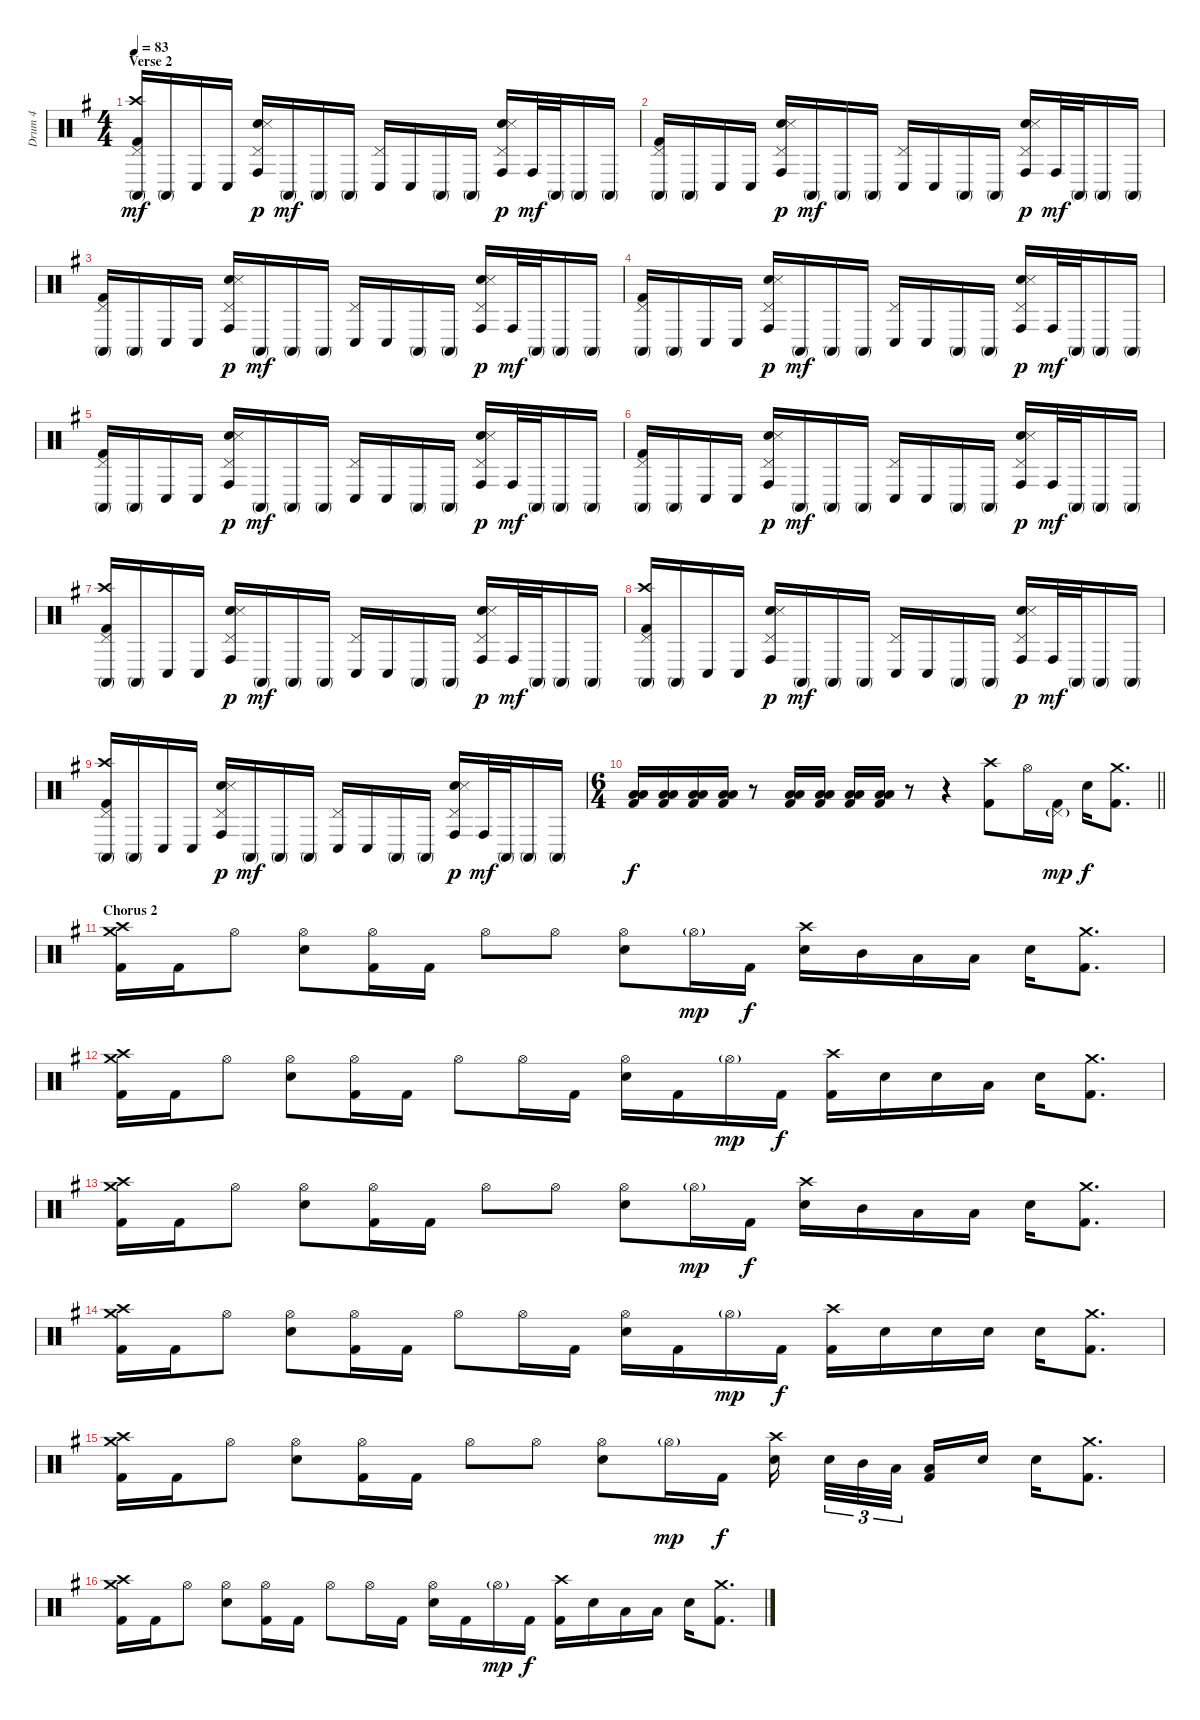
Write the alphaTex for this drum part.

\track ("Drum 4" "Drum 4") {instrument percussion}
\staff {score}
\articulation defaults
\ts (4 4)
\section ("" "Verse 2")
\tempo 83
\clef neutral
\ks eminor
("Crash high (hit)" "Pedal Hi-Hat (hit)" "Conga high (mute)" "Kick (hit) 2").16{dy mf} "Conga high (mute)".16 "Conga low (hit)".16 "Conga low (hit)".16 ("Pedal Hi-Hat (hit)" "Conga high (hit)" "Snare (hit) 2" "Snare (side stick) 3").16{dy p} "Conga high (mute)".16{dy mf} "Conga high (mute)".16 "Conga high (mute)".16 ("Pedal Hi-Hat (hit)" "Conga low (hit)").16 "Conga low (hit)".16 "Conga high (mute)".16 "Conga high (mute)".16 ("Pedal Hi-Hat (hit)" "Conga high (hit)" "Snare (hit) 2" "Snare (side stick) 3").16{dy p} "Conga high (hit)".32{dy mf} "Conga high (mute)".32 "Conga high (mute)".16 "Conga high (mute)".16 |
("Pedal Hi-Hat (hit)" "Conga high (mute)" "Kick (hit) 2").16 "Conga high (mute)".16 "Conga low (hit)".16 "Conga low (hit)".16 ("Pedal Hi-Hat (hit)" "Conga high (hit)" "Snare (hit) 2" "Snare (side stick) 3").16{dy p} "Conga high (mute)".16{dy mf} "Conga high (mute)".16 "Conga high (mute)".16 ("Pedal Hi-Hat (hit)" "Conga low (hit)").16 "Conga low (hit)".16 "Conga high (mute)".16 "Conga high (mute)".16 ("Pedal Hi-Hat (hit)" "Conga high (hit)" "Snare (hit) 2" "Snare (side stick) 3").16{dy p} "Conga high (hit)".32{dy mf} "Conga high (mute)".32 "Conga high (mute)".16 "Conga high (mute)".16 |
("Pedal Hi-Hat (hit)" "Conga high (mute)" "Kick (hit) 2").16 "Conga high (mute)".16 "Conga low (hit)".16 "Conga low (hit)".16 ("Pedal Hi-Hat (hit)" "Conga high (hit)" "Snare (hit) 2" "Snare (side stick) 3").16{dy p} "Conga high (mute)".16{dy mf} "Conga high (mute)".16 "Conga high (mute)".16 ("Pedal Hi-Hat (hit)" "Conga low (hit)").16 "Conga low (hit)".16 "Conga high (mute)".16 "Conga high (mute)".16 ("Pedal Hi-Hat (hit)" "Conga high (hit)" "Snare (hit) 2" "Snare (side stick) 3").16{dy p} "Conga high (hit)".32{dy mf} "Conga high (mute)".32 "Conga high (mute)".16 "Conga high (mute)".16 |
("Pedal Hi-Hat (hit)" "Conga high (mute)" "Kick (hit) 2").16 "Conga high (mute)".16 "Conga low (hit)".16 "Conga low (hit)".16 ("Pedal Hi-Hat (hit)" "Conga high (hit)" "Snare (hit) 2" "Snare (side stick) 3").16{dy p} "Conga high (mute)".16{dy mf} "Conga high (mute)".16 "Conga high (mute)".16 ("Pedal Hi-Hat (hit)" "Conga low (hit)").16 "Conga low (hit)".16 "Conga high (mute)".16 "Conga high (mute)".16 ("Pedal Hi-Hat (hit)" "Conga high (hit)" "Snare (hit) 2" "Snare (side stick) 3").16{dy p} "Conga high (hit)".32{dy mf} "Conga high (mute)".32 "Conga high (mute)".16 "Conga high (mute)".16 |
("Pedal Hi-Hat (hit)" "Conga high (mute)" "Kick (hit) 2").16 "Conga high (mute)".16 "Conga low (hit)".16 "Conga low (hit)".16 ("Pedal Hi-Hat (hit)" "Conga high (hit)" "Snare (hit) 2" "Snare (side stick) 3").16{dy p} "Conga high (mute)".16{dy mf} "Conga high (mute)".16 "Conga high (mute)".16 ("Pedal Hi-Hat (hit)" "Conga low (hit)").16 "Conga low (hit)".16 "Conga high (mute)".16 "Conga high (mute)".16 ("Pedal Hi-Hat (hit)" "Conga high (hit)" "Snare (hit) 2" "Snare (side stick) 3").16{dy p} "Conga high (hit)".32{dy mf} "Conga high (mute)".32 "Conga high (mute)".16 "Conga high (mute)".16 |
("Pedal Hi-Hat (hit)" "Conga high (mute)" "Kick (hit) 2").16 "Conga high (mute)".16 "Conga low (hit)".16 "Conga low (hit)".16 ("Pedal Hi-Hat (hit)" "Conga high (hit)" "Snare (hit) 2" "Snare (side stick) 3").16{dy p} "Conga high (mute)".16{dy mf} "Conga high (mute)".16 "Conga high (mute)".16 ("Pedal Hi-Hat (hit)" "Conga low (hit)").16 "Conga low (hit)".16 "Conga high (mute)".16 "Conga high (mute)".16 ("Pedal Hi-Hat (hit)" "Conga high (hit)" "Snare (hit) 2" "Snare (side stick) 3").16{dy p} "Conga high (hit)".32{dy mf} "Conga high (mute)".32 "Conga high (mute)".16 "Conga high (mute)".16 |
("Crash high (hit)" "Pedal Hi-Hat (hit)" "Conga high (mute)" "Kick (hit) 2").16 "Conga high (mute)".16 "Conga low (hit)".16 "Conga low (hit)".16 ("Pedal Hi-Hat (hit)" "Conga high (hit)" "Snare (hit) 2" "Snare (side stick) 3").16{dy p} "Conga high (mute)".16{dy mf} "Conga high (mute)".16 "Conga high (mute)".16 ("Pedal Hi-Hat (hit)" "Conga low (hit)").16 "Conga low (hit)".16 "Conga high (mute)".16 "Conga high (mute)".16 ("Pedal Hi-Hat (hit)" "Conga high (hit)" "Snare (hit) 2" "Snare (side stick) 3").16{dy p} "Conga high (hit)".32{dy mf} "Conga high (mute)".32 "Conga high (mute)".16 "Conga high (mute)".16 |
("Crash high (hit)" "Pedal Hi-Hat (hit)" "Conga high (mute)" "Kick (hit) 2").16 "Conga high (mute)".16 "Conga low (hit)".16 "Conga low (hit)".16 ("Pedal Hi-Hat (hit)" "Conga high (hit)" "Snare (hit) 2" "Snare (side stick) 3").16{dy p} "Conga high (mute)".16{dy mf} "Conga high (mute)".16 "Conga high (mute)".16 ("Pedal Hi-Hat (hit)" "Conga low (hit)").16 "Conga low (hit)".16 "Conga high (mute)".16 "Conga high (mute)".16 ("Pedal Hi-Hat (hit)" "Conga high (hit)" "Snare (hit) 2" "Snare (side stick) 3").16{dy p} "Conga high (hit)".32{dy mf} "Conga high (mute)".32 "Conga high (mute)".16 "Conga high (mute)".16 |
("Crash high (hit)" "Pedal Hi-Hat (hit)" "Conga high (mute)" "Kick (hit) 2").16 "Conga high (mute)".16 "Conga low (hit)".16 "Conga low (hit)".16 ("Pedal Hi-Hat (hit)" "Conga high (hit)" "Snare (hit) 2" "Snare (side stick) 3").16{dy p} "Conga high (mute)".16{dy mf} "Conga high (mute)".16 "Conga high (mute)".16 ("Pedal Hi-Hat (hit)" "Conga low (hit)").16 "Conga low (hit)".16 "Conga high (mute)".16 "Conga high (mute)".16 ("Pedal Hi-Hat (hit)" "Conga high (hit)" "Snare (hit) 2" "Snare (side stick) 3").16{dy p} "Conga high (hit)".32{dy mf} "Conga high (mute)".32 "Conga high (mute)".16 "Conga high (mute)".16 |
\ts (6 4)
\barLineRight lightlight
("Low Tom (hit)" "Low Floor Tom (hit)" "Kick (hit) 2").16{dy f} ("Low Tom (hit)" "Low Floor Tom (hit)" "Kick (hit) 2").16 ("Low Tom (hit)" "Low Floor Tom (hit)" "Kick (hit) 2").16 ("Low Tom (hit)" "Low Floor Tom (hit)" "Kick (hit) 2").16 r.8 ("Low Tom (hit)" "Low Floor Tom (hit)" "Kick (hit) 2").16 ("Low Tom (hit)" "Low Floor Tom (hit)" "Kick (hit) 2").16 ("Low Tom (hit)" "Low Floor Tom (hit)" "Kick (hit) 2").16 ("Low Tom (hit)" "Low Floor Tom (hit)" "Kick (hit) 2").16 r.8 r.4 ("Crash high (hit)" "Kick (hit) 2").8 "Hi-Hat (open)".16 ("Pedal Hi-Hat (hit)"{g} "Kick (hit) 2").16{dy mp} "Snare (hit) 2".16{dy f} ("Crash medium (hit)" "Kick (hit) 2").8{d} |
\section ("" "Chorus 2")
("Crash high (hit)" "Crash medium (hit)" "Kick (hit) 2").16 "Kick (hit) 2".16 "Hi-Hat (open)".8 ("Hi-Hat (open)" "Snare (hit) 2").8 ("Hi-Hat (open)" "Kick (hit) 2").16 "Kick (hit) 2".16 "Hi-Hat (open)".8 "Hi-Hat (open)".8 ("Hi-Hat (open)" "Snare (hit) 2").8 "Hi-Hat (open)"{g}.16{dy mp} "Kick (hit) 2".16{dy f} ("Crash high (hit)" "Snare (hit) 2").16 "Mid Tom (hit)".16 "Low Tom (hit)".16 "Low Floor Tom (hit)".16 "Snare (hit) 2".16 ("Crash medium (hit)" "Kick (hit) 2").8{d} |
("Crash high (hit)" "Crash medium (hit)" "Kick (hit) 2").16 "Kick (hit) 2".16 "Hi-Hat (open)".8 ("Hi-Hat (open)" "Snare (hit) 2").8 ("Hi-Hat (open)" "Kick (hit) 2").16 "Kick (hit) 2".16 "Hi-Hat (open)".8 "Hi-Hat (open)".16 "Kick (hit) 2".16 ("Hi-Hat (open)" "Snare (hit) 2").16 "Kick (hit) 2".16 "Hi-Hat (open)"{g}.16{dy mp} "Kick (hit) 2".16{dy f} ("Crash high (hit)" "Kick (hit) 2").16 "Snare (hit) 2".16 "Snare (hit) 2".16 "Low Tom (hit)".16 "Snare (hit) 2".16 ("Crash medium (hit)" "Kick (hit) 2").8{d} |
("Crash high (hit)" "Crash medium (hit)" "Kick (hit) 2").16 "Kick (hit) 2".16 "Hi-Hat (open)".8 ("Hi-Hat (open)" "Snare (hit) 2").8 ("Hi-Hat (open)" "Kick (hit) 2").16 "Kick (hit) 2".16 "Hi-Hat (open)".8 "Hi-Hat (open)".8 ("Hi-Hat (open)" "Snare (hit) 2").8 "Hi-Hat (open)"{g}.16{dy mp} "Kick (hit) 2".16{dy f} ("Crash high (hit)" "Snare (hit) 2").16 "Mid Tom (hit)".16 "Low Tom (hit)".16 "Low Floor Tom (hit)".16 "Snare (hit) 2".16 ("Crash medium (hit)" "Kick (hit) 2").8{d} |
("Crash high (hit)" "Crash medium (hit)" "Kick (hit) 2").16 "Kick (hit) 2".16 "Hi-Hat (open)".8 ("Hi-Hat (open)" "Snare (hit) 2").8 ("Hi-Hat (open)" "Kick (hit) 2").16 "Kick (hit) 2".16 "Hi-Hat (open)".8 "Hi-Hat (open)".16 "Kick (hit) 2".16 ("Hi-Hat (open)" "Snare (hit) 2").16 "Kick (hit) 2".16 "Hi-Hat (open)"{g}.16{dy mp} "Kick (hit) 2".16{dy f} ("Crash high (hit)" "Kick (hit) 2").16 "Snare (hit) 2".16 "Snare (hit) 2".16 "Snare (hit) 2".16 "Snare (hit) 2".16 ("Crash medium (hit)" "Kick (hit) 2").8{d} |
("Crash high (hit)" "Crash medium (hit)" "Kick (hit) 2").16 "Kick (hit) 2".16 "Hi-Hat (open)".8 ("Hi-Hat (open)" "Snare (hit) 2").8 ("Hi-Hat (open)" "Kick (hit) 2").16 "Kick (hit) 2".16 "Hi-Hat (open)".8 "Hi-Hat (open)".8 ("Hi-Hat (open)" "Snare (hit) 2").8 "Hi-Hat (open)"{g}.16{dy mp} "Kick (hit) 2".16{dy f} ("Crash high (hit)" "Snare (hit) 2").16{beam splitsecondary} "Snare (hit) 2".32{tu (3 2)} "Mid Tom (hit)".32{tu (3 2)} "Low Tom (hit)".32{tu (3 2) beam splitsecondary} ("Low Floor Tom (hit)" "Kick (hit) 2").16 "Snare (hit) 2".16 "Snare (hit) 2".16 ("Crash medium (hit)" "Kick (hit) 2").8{d} |
("Crash high (hit)" "Crash medium (hit)" "Kick (hit) 2").16 "Kick (hit) 2".16 "Hi-Hat (open)".8 ("Hi-Hat (open)" "Snare (hit) 2").8 ("Hi-Hat (open)" "Kick (hit) 2").16 "Kick (hit) 2".16 "Hi-Hat (open)".8 "Hi-Hat (open)".16 "Kick (hit) 2".16 ("Hi-Hat (open)" "Snare (hit) 2").16 "Kick (hit) 2".16 "Hi-Hat (open)"{g}.16{dy mp} "Kick (hit) 2".16{dy f} ("Crash high (hit)" "Kick (hit) 2").16 "Snare (hit) 2".16 "Low Tom (hit)".16 "Low Tom (hit)".16 "Snare (hit) 2".16 ("Crash medium (hit)" "Kick (hit) 2").8{d}
